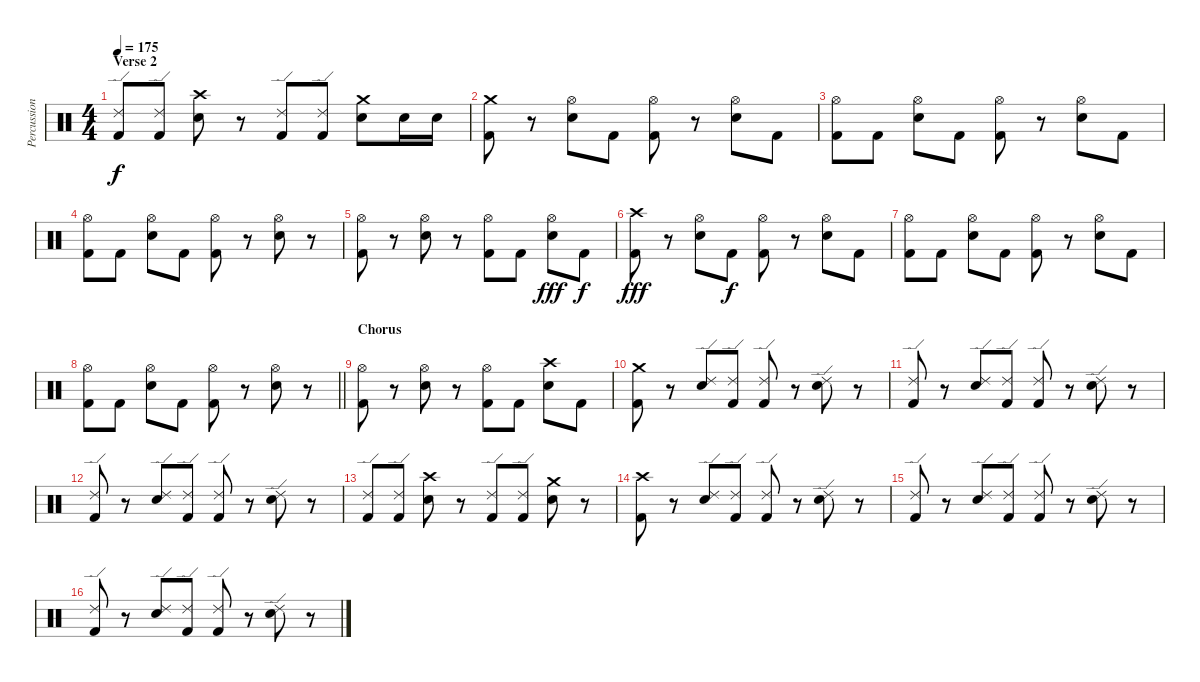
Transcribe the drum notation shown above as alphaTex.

\track ("Percussion" "Percussion") {instrument percussion}
\staff {score}
\articulation defaults
\ts (4 4)
\section ("" "Verse 2")
\tempo 175
\clef neutral
\ks c
("Ride (edge) 2" "Kick (hit) 2").8{dy f} ("Ride (edge) 2" "Kick (hit) 2").8 ("Crash high (hit)" "Electric Snare (hit)").8 r.8 ("Ride (edge) 2" "Kick (hit) 2").8 ("Ride (edge) 2" "Kick (hit) 2").8 ("Crash medium (hit)" "Electric Snare (hit)").8 "Electric Snare (hit)".16 "Electric Snare (hit)".16 |
("Crash medium (hit)" "Kick (hit) 2").8 r.8 ("Hi-Hat (open)" "Electric Snare (hit)").8 "Kick (hit) 2".8 ("Hi-Hat (open)" "Kick (hit) 2").8 r.8 ("Hi-Hat (open)" "Electric Snare (hit)").8 "Kick (hit) 2".8 |
("Hi-Hat (open)" "Kick (hit) 2").8 "Kick (hit) 2".8 ("Hi-Hat (open)" "Electric Snare (hit)").8 "Kick (hit) 2".8 ("Hi-Hat (open)" "Kick (hit) 2").8 r.8 ("Hi-Hat (open)" "Electric Snare (hit)").8 "Kick (hit) 2".8 |
("Hi-Hat (open)" "Kick (hit) 2").8 "Kick (hit) 2".8 ("Hi-Hat (open)" "Electric Snare (hit)").8 "Kick (hit) 2".8 ("Hi-Hat (open)" "Kick (hit) 2").8 r.8 ("Hi-Hat (open)" "Electric Snare (hit)").8 r.8 |
("Hi-Hat (open)" "Kick (hit) 2").8 r.8 ("Hi-Hat (open)" "Electric Snare (hit)").8 r.8 ("Hi-Hat (open)" "Kick (hit) 2").8 "Kick (hit) 2".8 ("Hi-Hat (open)" "Electric Snare (hit)").8{dy fff} "Kick (hit) 2".8{dy f} |
("Crash high (hit)" "Kick (hit) 2").8{dy fff} r.8 ("Hi-Hat (open)" "Electric Snare (hit)").8 "Kick (hit) 2".8{dy f} ("Hi-Hat (open)" "Kick (hit) 2").8 r.8 ("Hi-Hat (open)" "Electric Snare (hit)").8 "Kick (hit) 2".8 |
("Hi-Hat (open)" "Kick (hit) 2").8 "Kick (hit) 2".8 ("Hi-Hat (open)" "Electric Snare (hit)").8 "Kick (hit) 2".8 ("Hi-Hat (open)" "Kick (hit) 2").8 r.8 ("Hi-Hat (open)" "Electric Snare (hit)").8 "Kick (hit) 2".8 |
\barLineRight lightlight
("Hi-Hat (open)" "Kick (hit) 2").8 "Kick (hit) 2".8 ("Hi-Hat (open)" "Electric Snare (hit)").8 "Kick (hit) 2".8 ("Hi-Hat (open)" "Kick (hit) 2").8 r.8 ("Hi-Hat (open)" "Electric Snare (hit)").8 r.8 |
\section ("" "Chorus")
("Hi-Hat (open)" "Kick (hit) 2").8 r.8 ("Hi-Hat (open)" "Electric Snare (hit)").8 r.8 ("Hi-Hat (open)" "Kick (hit) 2").8 "Kick (hit) 2".8 ("Crash high (hit)" "Electric Snare (hit)").8 "Kick (hit) 2".8 |
("Crash medium (hit)" "Kick (hit) 2").8 r.8 ("Ride (edge) 2" "Electric Snare (hit)").8 ("Ride (edge) 2" "Kick (hit) 2").8 ("Ride (edge) 2" "Kick (hit) 2").8 r.8 ("Ride (edge) 2" "Electric Snare (hit)").8 r.8 |
("Ride (edge) 2" "Kick (hit) 2").8 r.8 ("Ride (edge) 2" "Electric Snare (hit)").8 ("Ride (edge) 2" "Kick (hit) 2").8 ("Ride (edge) 2" "Kick (hit) 2").8 r.8 ("Ride (edge) 2" "Electric Snare (hit)").8 r.8 |
("Ride (edge) 2" "Kick (hit) 2").8 r.8 ("Ride (edge) 2" "Electric Snare (hit)").8 ("Ride (edge) 2" "Kick (hit) 2").8 ("Ride (edge) 2" "Kick (hit) 2").8 r.8 ("Ride (edge) 2" "Electric Snare (hit)").8 r.8 |
("Ride (edge) 2" "Kick (hit) 2").8 ("Ride (edge) 2" "Kick (hit) 2").8 ("Crash high (hit)" "Electric Snare (hit)").8 r.8 ("Ride (edge) 2" "Kick (hit) 2").8 ("Ride (edge) 2" "Kick (hit) 2").8 ("Crash medium (hit)" "Electric Snare (hit)").8 r.8 |
("Crash high (hit)" "Kick (hit) 2").8 r.8 ("Ride (edge) 2" "Electric Snare (hit)").8 ("Ride (edge) 2" "Kick (hit) 2").8 ("Ride (edge) 2" "Kick (hit) 2").8 r.8 ("Ride (edge) 2" "Electric Snare (hit)").8 r.8 |
("Ride (edge) 2" "Kick (hit) 2").8 r.8 ("Ride (edge) 2" "Electric Snare (hit)").8 ("Ride (edge) 2" "Kick (hit) 2").8 ("Ride (edge) 2" "Kick (hit) 2").8 r.8 ("Ride (edge) 2" "Electric Snare (hit)").8 r.8 |
("Ride (edge) 2" "Kick (hit) 2").8 r.8 ("Ride (edge) 2" "Electric Snare (hit)").8 ("Ride (edge) 2" "Kick (hit) 2").8 ("Ride (edge) 2" "Kick (hit) 2").8 r.8 ("Ride (edge) 2" "Electric Snare (hit)").8 r.8
